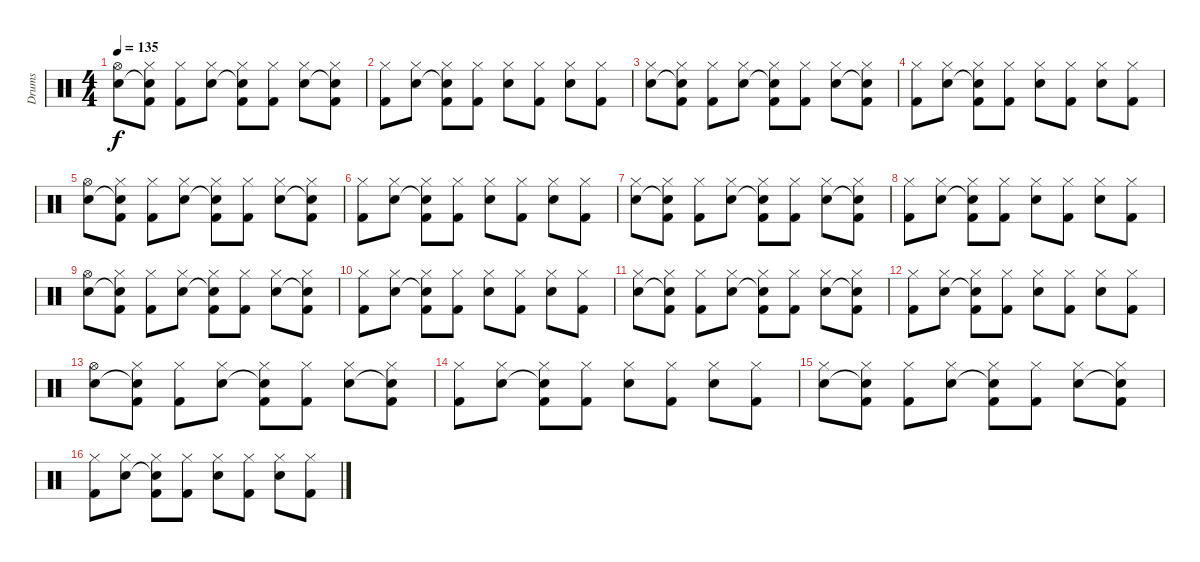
\track ("Drums" "Drums") {instrument percussion}
\staff {score}
\articulation defaults
\ts (4 4)
\tempo 135
\clef neutral
\ks c
("Hi-Hat (open)" "Snare (hit) 2").8{dy f volume 10} ("Hi-Hat (closed)" "Snare (hit) 2"{t} "Kick (hit) 2").8 ("Hi-Hat (closed)" "Kick (hit) 2").8 ("Hi-Hat (closed)" "Snare (hit) 2").8 ("Hi-Hat (closed)" "Snare (hit) 2"{t} "Kick (hit) 2").8 ("Hi-Hat (closed)" "Kick (hit) 2").8 ("Hi-Hat (closed)" "Snare (hit) 2").8 ("Hi-Hat (closed)" "Snare (hit) 2"{t} "Kick (hit) 2").8 |
("Hi-Hat (closed)" "Kick (hit) 2").8 ("Hi-Hat (closed)" "Snare (hit) 2").8 ("Hi-Hat (closed)" "Snare (hit) 2"{t} "Kick (hit) 2").8 ("Hi-Hat (closed)" "Kick (hit) 2").8 ("Hi-Hat (closed)" "Snare (hit) 2").8 ("Hi-Hat (closed)" "Kick (hit) 2").8 ("Hi-Hat (closed)" "Snare (hit) 2").8 ("Hi-Hat (closed)" "Kick (hit) 2").8 |
("Hi-Hat (closed)" "Snare (hit) 2").8 ("Hi-Hat (closed)" "Snare (hit) 2"{t} "Kick (hit) 2").8 ("Hi-Hat (closed)" "Kick (hit) 2").8 ("Hi-Hat (closed)" "Snare (hit) 2").8 ("Hi-Hat (closed)" "Snare (hit) 2"{t} "Kick (hit) 2").8 ("Hi-Hat (closed)" "Kick (hit) 2").8 ("Hi-Hat (closed)" "Snare (hit) 2").8 ("Hi-Hat (closed)" "Snare (hit) 2"{t} "Kick (hit) 2").8 |
("Hi-Hat (closed)" "Kick (hit) 2").8 ("Hi-Hat (closed)" "Snare (hit) 2").8 ("Hi-Hat (closed)" "Snare (hit) 2"{t} "Kick (hit) 2").8 ("Hi-Hat (closed)" "Kick (hit) 2").8 ("Hi-Hat (closed)" "Snare (hit) 2").8 ("Hi-Hat (closed)" "Kick (hit) 2").8 ("Hi-Hat (closed)" "Snare (hit) 2").8 ("Hi-Hat (closed)" "Kick (hit) 2").8 |
("Hi-Hat (open)" "Snare (hit) 2").8{volume 8} ("Hi-Hat (closed)" "Snare (hit) 2"{t} "Kick (hit) 2").8 ("Hi-Hat (closed)" "Kick (hit) 2").8 ("Hi-Hat (closed)" "Snare (hit) 2").8 ("Hi-Hat (closed)" "Snare (hit) 2"{t} "Kick (hit) 2").8 ("Hi-Hat (closed)" "Kick (hit) 2").8 ("Hi-Hat (closed)" "Snare (hit) 2").8 ("Hi-Hat (closed)" "Snare (hit) 2"{t} "Kick (hit) 2").8 |
("Hi-Hat (closed)" "Kick (hit) 2").8 ("Hi-Hat (closed)" "Snare (hit) 2").8 ("Hi-Hat (closed)" "Snare (hit) 2"{t} "Kick (hit) 2").8 ("Hi-Hat (closed)" "Kick (hit) 2").8 ("Hi-Hat (closed)" "Snare (hit) 2").8 ("Hi-Hat (closed)" "Kick (hit) 2").8 ("Hi-Hat (closed)" "Snare (hit) 2").8 ("Hi-Hat (closed)" "Kick (hit) 2").8 |
("Hi-Hat (closed)" "Snare (hit) 2").8 ("Hi-Hat (closed)" "Snare (hit) 2"{t} "Kick (hit) 2").8 ("Hi-Hat (closed)" "Kick (hit) 2").8 ("Hi-Hat (closed)" "Snare (hit) 2").8 ("Hi-Hat (closed)" "Snare (hit) 2"{t} "Kick (hit) 2").8 ("Hi-Hat (closed)" "Kick (hit) 2").8 ("Hi-Hat (closed)" "Snare (hit) 2").8 ("Hi-Hat (closed)" "Snare (hit) 2"{t} "Kick (hit) 2").8 |
("Hi-Hat (closed)" "Kick (hit) 2").8 ("Hi-Hat (closed)" "Snare (hit) 2").8 ("Hi-Hat (closed)" "Snare (hit) 2"{t} "Kick (hit) 2").8 ("Hi-Hat (closed)" "Kick (hit) 2").8 ("Hi-Hat (closed)" "Snare (hit) 2").8 ("Hi-Hat (closed)" "Kick (hit) 2").8 ("Hi-Hat (closed)" "Snare (hit) 2").8 ("Hi-Hat (closed)" "Kick (hit) 2").8 |
("Hi-Hat (open)" "Snare (hit) 2").8{volume 5} ("Hi-Hat (closed)" "Snare (hit) 2"{t} "Kick (hit) 2").8 ("Hi-Hat (closed)" "Kick (hit) 2").8 ("Hi-Hat (closed)" "Snare (hit) 2").8 ("Hi-Hat (closed)" "Snare (hit) 2"{t} "Kick (hit) 2").8 ("Hi-Hat (closed)" "Kick (hit) 2").8 ("Hi-Hat (closed)" "Snare (hit) 2").8 ("Hi-Hat (closed)" "Snare (hit) 2"{t} "Kick (hit) 2").8 |
("Hi-Hat (closed)" "Kick (hit) 2").8 ("Hi-Hat (closed)" "Snare (hit) 2").8 ("Hi-Hat (closed)" "Snare (hit) 2"{t} "Kick (hit) 2").8 ("Hi-Hat (closed)" "Kick (hit) 2").8 ("Hi-Hat (closed)" "Snare (hit) 2").8 ("Hi-Hat (closed)" "Kick (hit) 2").8 ("Hi-Hat (closed)" "Snare (hit) 2").8 ("Hi-Hat (closed)" "Kick (hit) 2").8 |
("Hi-Hat (closed)" "Snare (hit) 2").8 ("Hi-Hat (closed)" "Snare (hit) 2"{t} "Kick (hit) 2").8 ("Hi-Hat (closed)" "Kick (hit) 2").8 ("Hi-Hat (closed)" "Snare (hit) 2").8 ("Hi-Hat (closed)" "Snare (hit) 2"{t} "Kick (hit) 2").8 ("Hi-Hat (closed)" "Kick (hit) 2").8 ("Hi-Hat (closed)" "Snare (hit) 2").8 ("Hi-Hat (closed)" "Snare (hit) 2"{t} "Kick (hit) 2").8 |
("Hi-Hat (closed)" "Kick (hit) 2").8 ("Hi-Hat (closed)" "Snare (hit) 2").8 ("Hi-Hat (closed)" "Snare (hit) 2"{t} "Kick (hit) 2").8 ("Hi-Hat (closed)" "Kick (hit) 2").8 ("Hi-Hat (closed)" "Snare (hit) 2").8 ("Hi-Hat (closed)" "Kick (hit) 2").8 ("Hi-Hat (closed)" "Snare (hit) 2").8 ("Hi-Hat (closed)" "Kick (hit) 2").8 |
("Hi-Hat (open)" "Snare (hit) 2").8{volume 6} ("Hi-Hat (closed)" "Snare (hit) 2"{t} "Kick (hit) 2").8{volume 3} ("Hi-Hat (closed)" "Kick (hit) 2").8 ("Hi-Hat (closed)" "Snare (hit) 2").8 ("Hi-Hat (closed)" "Snare (hit) 2"{t} "Kick (hit) 2").8 ("Hi-Hat (closed)" "Kick (hit) 2").8 ("Hi-Hat (closed)" "Snare (hit) 2").8 ("Hi-Hat (closed)" "Snare (hit) 2"{t} "Kick (hit) 2").8 |
("Hi-Hat (closed)" "Kick (hit) 2").8 ("Hi-Hat (closed)" "Snare (hit) 2").8 ("Hi-Hat (closed)" "Snare (hit) 2"{t} "Kick (hit) 2").8 ("Hi-Hat (closed)" "Kick (hit) 2").8 ("Hi-Hat (closed)" "Snare (hit) 2").8 ("Hi-Hat (closed)" "Kick (hit) 2").8 ("Hi-Hat (closed)" "Snare (hit) 2").8 ("Hi-Hat (closed)" "Kick (hit) 2").8{volume 0} |
("Hi-Hat (closed)" "Snare (hit) 2").8 ("Hi-Hat (closed)" "Snare (hit) 2"{t} "Kick (hit) 2").8 ("Hi-Hat (closed)" "Kick (hit) 2").8 ("Hi-Hat (closed)" "Snare (hit) 2").8 ("Hi-Hat (closed)" "Snare (hit) 2"{t} "Kick (hit) 2").8 ("Hi-Hat (closed)" "Kick (hit) 2").8 ("Hi-Hat (closed)" "Snare (hit) 2").8 ("Hi-Hat (closed)" "Snare (hit) 2"{t} "Kick (hit) 2").8 |
("Hi-Hat (closed)" "Kick (hit) 2").8 ("Hi-Hat (closed)" "Snare (hit) 2").8 ("Hi-Hat (closed)" "Snare (hit) 2"{t} "Kick (hit) 2").8 ("Hi-Hat (closed)" "Kick (hit) 2").8 ("Hi-Hat (closed)" "Snare (hit) 2").8 ("Hi-Hat (closed)" "Kick (hit) 2").8 ("Hi-Hat (closed)" "Snare (hit) 2").8 ("Hi-Hat (closed)" "Kick (hit) 2").8
